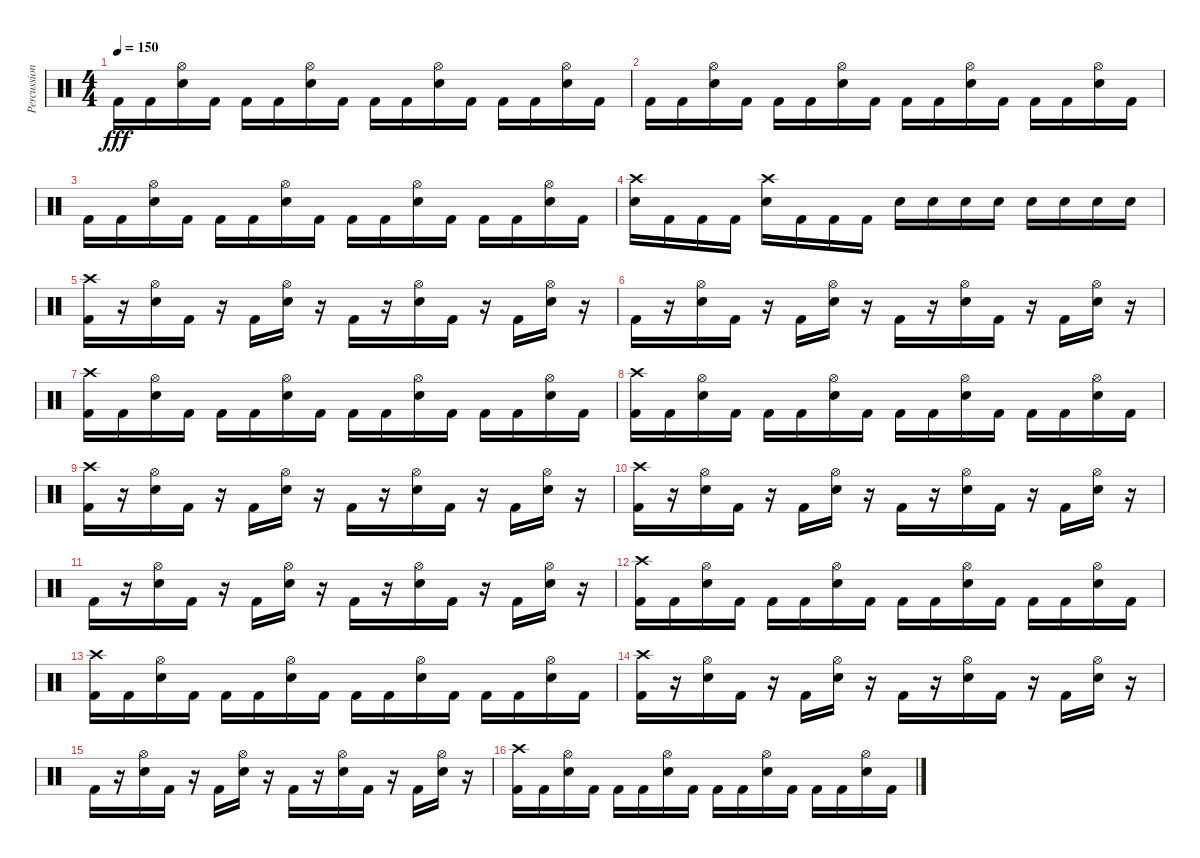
\track ("Percussion" "Percussion") {instrument percussion}
\staff {score}
\articulation defaults
\ts (4 4)
\tempo 150
\clef neutral
\ks c "Kick (hit) 2".16{dy fff} "Kick (hit) 2".16
("Snare (hit) 2" "Hi-Hat (open)").16 "Kick (hit) 2".16 "Kick (hit) 2".16 "Kick (hit) 2".16 ("Snare (hit) 2" "Hi-Hat (open)").16 "Kick (hit) 2".16 "Kick (hit) 2".16 "Kick (hit) 2".16 ("Snare (hit) 2" "Hi-Hat (open)").16 "Kick (hit) 2".16 "Kick (hit) 2".16 "Kick (hit) 2".16 ("Snare (hit) 2" "Hi-Hat (open)").16 "Kick (hit) 2".16 |
"Kick (hit) 2".16 "Kick (hit) 2".16 ("Snare (hit) 2" "Hi-Hat (open)").16 "Kick (hit) 2".16 "Kick (hit) 2".16 "Kick (hit) 2".16 ("Snare (hit) 2" "Hi-Hat (open)").16 "Kick (hit) 2".16 "Kick (hit) 2".16 "Kick (hit) 2".16 ("Snare (hit) 2" "Hi-Hat (open)").16 "Kick (hit) 2".16 "Kick (hit) 2".16 "Kick (hit) 2".16 ("Snare (hit) 2" "Hi-Hat (open)").16 "Kick (hit) 2".16 |
"Kick (hit) 2".16 "Kick (hit) 2".16 ("Snare (hit) 2" "Hi-Hat (open)").16 "Kick (hit) 2".16 "Kick (hit) 2".16 "Kick (hit) 2".16 ("Snare (hit) 2" "Hi-Hat (open)").16 "Kick (hit) 2".16 "Kick (hit) 2".16 "Kick (hit) 2".16 ("Snare (hit) 2" "Hi-Hat (open)").16 "Kick (hit) 2".16 "Kick (hit) 2".16 "Kick (hit) 2".16 ("Snare (hit) 2" "Hi-Hat (open)").16 "Kick (hit) 2".16 |
("Snare (hit) 2" "Crash high (hit)").16 "Kick (hit) 2".16 "Kick (hit) 2".16 "Kick (hit) 2".16 ("Snare (hit) 2" "Crash high (hit)").16 "Kick (hit) 2".16 "Kick (hit) 2".16 "Kick (hit) 2".16 "Snare (hit) 2".16 "Snare (hit) 2".16 "Snare (hit) 2".16 "Snare (hit) 2".16 "Snare (hit) 2".16 "Snare (hit) 2".16 "Snare (hit) 2".16 "Snare (hit) 2".16 |
("Kick (hit) 2" "Crash high (hit)").16 r.16 ("Snare (hit) 2" "Hi-Hat (open)").16 "Kick (hit) 2".16 r.16 "Kick (hit) 2".16 ("Snare (hit) 2" "Hi-Hat (open)").16 r.16 "Kick (hit) 2".16 r.16 ("Snare (hit) 2" "Hi-Hat (open)").16 "Kick (hit) 2".16 r.16 "Kick (hit) 2".16 ("Snare (hit) 2" "Hi-Hat (open)").16 r.16 |
"Kick (hit) 2".16 r.16 ("Snare (hit) 2" "Hi-Hat (open)").16 "Kick (hit) 2".16 r.16 "Kick (hit) 2".16 ("Snare (hit) 2" "Hi-Hat (open)").16 r.16 "Kick (hit) 2".16 r.16 ("Snare (hit) 2" "Hi-Hat (open)").16 "Kick (hit) 2".16 r.16 "Kick (hit) 2".16 ("Snare (hit) 2" "Hi-Hat (open)").16 r.16 |
("Kick (hit) 2" "Crash high (hit)").16 "Kick (hit) 2".16 ("Snare (hit) 2" "Hi-Hat (open)").16 "Kick (hit) 2".16 "Kick (hit) 2".16 "Kick (hit) 2".16 ("Snare (hit) 2" "Hi-Hat (open)").16 "Kick (hit) 2".16 "Kick (hit) 2".16 "Kick (hit) 2".16 ("Snare (hit) 2" "Hi-Hat (open)").16 "Kick (hit) 2".16 "Kick (hit) 2".16 "Kick (hit) 2".16 ("Snare (hit) 2" "Hi-Hat (open)").16 "Kick (hit) 2".16 |
("Kick (hit) 2" "Crash high (hit)").16 "Kick (hit) 2".16 ("Snare (hit) 2" "Hi-Hat (open)").16 "Kick (hit) 2".16 "Kick (hit) 2".16 "Kick (hit) 2".16 ("Snare (hit) 2" "Hi-Hat (open)").16 "Kick (hit) 2".16 "Kick (hit) 2".16 "Kick (hit) 2".16 ("Snare (hit) 2" "Hi-Hat (open)").16 "Kick (hit) 2".16 "Kick (hit) 2".16 "Kick (hit) 2".16 ("Snare (hit) 2" "Hi-Hat (open)").16 "Kick (hit) 2".16 |
("Kick (hit) 2" "Crash high (hit)").16 r.16 ("Snare (hit) 2" "Hi-Hat (open)").16 "Kick (hit) 2".16 r.16 "Kick (hit) 2".16 ("Snare (hit) 2" "Hi-Hat (open)").16 r.16 "Kick (hit) 2".16 r.16 ("Snare (hit) 2" "Hi-Hat (open)").16 "Kick (hit) 2".16 r.16 "Kick (hit) 2".16 ("Snare (hit) 2" "Hi-Hat (open)").16 r.16 |
("Kick (hit) 2" "Crash high (hit)").16 r.16 ("Snare (hit) 2" "Hi-Hat (open)").16 "Kick (hit) 2".16 r.16 "Kick (hit) 2".16 ("Snare (hit) 2" "Hi-Hat (open)").16 r.16 "Kick (hit) 2".16 r.16 ("Snare (hit) 2" "Hi-Hat (open)").16 "Kick (hit) 2".16 r.16 "Kick (hit) 2".16 ("Snare (hit) 2" "Hi-Hat (open)").16 r.16 |
"Kick (hit) 2".16 r.16 ("Snare (hit) 2" "Hi-Hat (open)").16 "Kick (hit) 2".16 r.16 "Kick (hit) 2".16 ("Snare (hit) 2" "Hi-Hat (open)").16 r.16 "Kick (hit) 2".16 r.16 ("Snare (hit) 2" "Hi-Hat (open)").16 "Kick (hit) 2".16 r.16 "Kick (hit) 2".16 ("Snare (hit) 2" "Hi-Hat (open)").16 r.16 |
("Kick (hit) 2" "Crash high (hit)").16 "Kick (hit) 2".16 ("Snare (hit) 2" "Hi-Hat (open)").16 "Kick (hit) 2".16 "Kick (hit) 2".16 "Kick (hit) 2".16 ("Snare (hit) 2" "Hi-Hat (open)").16 "Kick (hit) 2".16 "Kick (hit) 2".16 "Kick (hit) 2".16 ("Snare (hit) 2" "Hi-Hat (open)").16 "Kick (hit) 2".16 "Kick (hit) 2".16 "Kick (hit) 2".16 ("Snare (hit) 2" "Hi-Hat (open)").16 "Kick (hit) 2".16 |
("Kick (hit) 2" "Crash high (hit)").16 "Kick (hit) 2".16 ("Snare (hit) 2" "Hi-Hat (open)").16 "Kick (hit) 2".16 "Kick (hit) 2".16 "Kick (hit) 2".16 ("Snare (hit) 2" "Hi-Hat (open)").16 "Kick (hit) 2".16 "Kick (hit) 2".16 "Kick (hit) 2".16 ("Snare (hit) 2" "Hi-Hat (open)").16 "Kick (hit) 2".16 "Kick (hit) 2".16 "Kick (hit) 2".16 ("Snare (hit) 2" "Hi-Hat (open)").16 "Kick (hit) 2".16 |
("Kick (hit) 2" "Crash high (hit)").16 r.16 ("Snare (hit) 2" "Hi-Hat (open)").16 "Kick (hit) 2".16 r.16 "Kick (hit) 2".16 ("Snare (hit) 2" "Hi-Hat (open)").16 r.16 "Kick (hit) 2".16 r.16 ("Snare (hit) 2" "Hi-Hat (open)").16 "Kick (hit) 2".16 r.16 "Kick (hit) 2".16 ("Snare (hit) 2" "Hi-Hat (open)").16 r.16 |
"Kick (hit) 2".16 r.16 ("Snare (hit) 2" "Hi-Hat (open)").16 "Kick (hit) 2".16 r.16 "Kick (hit) 2".16 ("Snare (hit) 2" "Hi-Hat (open)").16 r.16 "Kick (hit) 2".16 r.16 ("Snare (hit) 2" "Hi-Hat (open)").16 "Kick (hit) 2".16 r.16 "Kick (hit) 2".16 ("Snare (hit) 2" "Hi-Hat (open)").16 r.16 |
("Kick (hit) 2" "Crash high (hit)").16 "Kick (hit) 2".16 ("Snare (hit) 2" "Hi-Hat (open)").16 "Kick (hit) 2".16 "Kick (hit) 2".16 "Kick (hit) 2".16 ("Snare (hit) 2" "Hi-Hat (open)").16 "Kick (hit) 2".16 "Kick (hit) 2".16 "Kick (hit) 2".16 ("Snare (hit) 2" "Hi-Hat (open)").16 "Kick (hit) 2".16 "Kick (hit) 2".16 "Kick (hit) 2".16 ("Snare (hit) 2" "Hi-Hat (open)").16 "Kick (hit) 2".16
